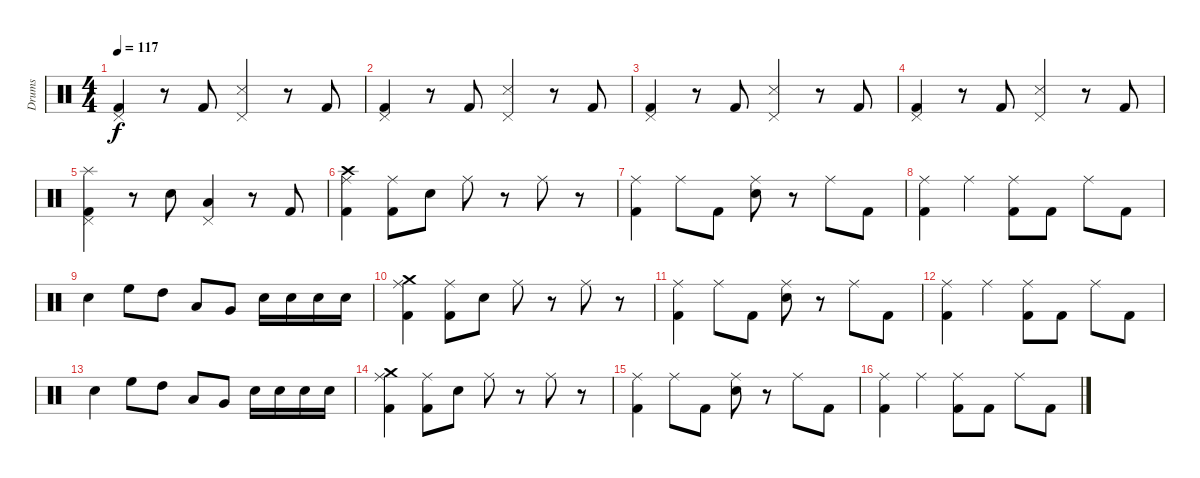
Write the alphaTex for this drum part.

\track ("Drums" "Drums") {instrument percussion}
\staff {score}
\articulation defaults
\ts (4 4)
\tempo 117
\clef neutral
\ks c
("Pedal Hi-Hat (hit)" "Kick (hit) 2").4{dy f} r.8 "Kick (hit) 2".8 ("Pedal Hi-Hat (hit)" "Snare (side stick) 3").4 r.8 "Kick (hit) 2".8 |
("Pedal Hi-Hat (hit)" "Kick (hit) 2").4 r.8 "Kick (hit) 2".8 ("Pedal Hi-Hat (hit)" "Snare (side stick) 3").4 r.8 "Kick (hit) 2".8 |
("Pedal Hi-Hat (hit)" "Kick (hit) 2").4 r.8 "Kick (hit) 2".8 ("Pedal Hi-Hat (hit)" "Snare (side stick) 3").4 r.8 "Kick (hit) 2".8 |
("Pedal Hi-Hat (hit)" "Kick (hit) 2").4 r.8 "Kick (hit) 2".8 ("Pedal Hi-Hat (hit)" "Snare (side stick) 3").4 r.8 "Kick (hit) 2".8 |
("Pedal Hi-Hat (hit)" "Splash (hit)" "Kick (hit) 2").4 r.8 "Snare (hit) 2".8 ("Pedal Hi-Hat (hit)" "Low Tom (hit)").4 r.8 "Kick (hit) 2".8 |
("Ride (middle)" "Kick (hit) 2" "Crash high (hit)").4 ("Ride (middle)" "Kick (hit) 2").8 "Snare (hit) 2".8 "Ride (middle)".8 r.8 "Ride (middle)".8 r.8 |
("Ride (middle)" "Kick (hit) 2").4 "Ride (middle)".8 "Kick (hit) 2".8 ("Ride (middle)" "Snare (hit) 2").8 r.8 "Ride (middle)".8 "Kick (hit) 2".8 |
("Ride (middle)" "Kick (hit) 2").4 "Ride (middle)".4 ("Ride (middle)" "Kick (hit) 2").8 "Kick (hit) 2".8 "Ride (middle)".8 "Kick (hit) 2".8 |
"Snare (hit) 2".4 "High Floor Tom (hit)".8 "High Tom (hit)".8 "Low Tom (hit)".8 "Very Low Tom (hit)".8 "Snare (hit) 2".16 "Snare (hit) 2".16 "Snare (hit) 2".16 "Snare (hit) 2".16 |
("Ride (middle)" "Kick (hit) 2" "Crash medium (hit)").4 ("Ride (middle)" "Kick (hit) 2").8 "Snare (hit) 2".8 "Ride (middle)".8 r.8 "Ride (middle)".8 r.8 |
("Ride (middle)" "Kick (hit) 2").4 "Ride (middle)".8 "Kick (hit) 2".8 ("Ride (middle)" "Snare (hit) 2").8 r.8 "Ride (middle)".8 "Kick (hit) 2".8 |
("Ride (middle)" "Kick (hit) 2").4 "Ride (middle)".4 ("Ride (middle)" "Kick (hit) 2").8 "Kick (hit) 2".8 "Ride (middle)".8 "Kick (hit) 2".8 |
"Snare (hit) 2".4 "High Floor Tom (hit)".8 "High Tom (hit)".8 "Low Tom (hit)".8 "Very Low Tom (hit)".8 "Snare (hit) 2".16 "Snare (hit) 2".16 "Snare (hit) 2".16 "Snare (hit) 2".16 |
("Ride (middle)" "Kick (hit) 2" "Crash medium (hit)").4 ("Ride (middle)" "Kick (hit) 2").8 "Snare (hit) 2".8 "Ride (middle)".8 r.8 "Ride (middle)".8 r.8 |
("Ride (middle)" "Kick (hit) 2").4 "Ride (middle)".8 "Kick (hit) 2".8 ("Ride (middle)" "Snare (hit) 2").8 r.8 "Ride (middle)".8 "Kick (hit) 2".8 |
("Ride (middle)" "Kick (hit) 2").4 "Ride (middle)".4 ("Ride (middle)" "Kick (hit) 2").8 "Kick (hit) 2".8 "Ride (middle)".8 "Kick (hit) 2".8
